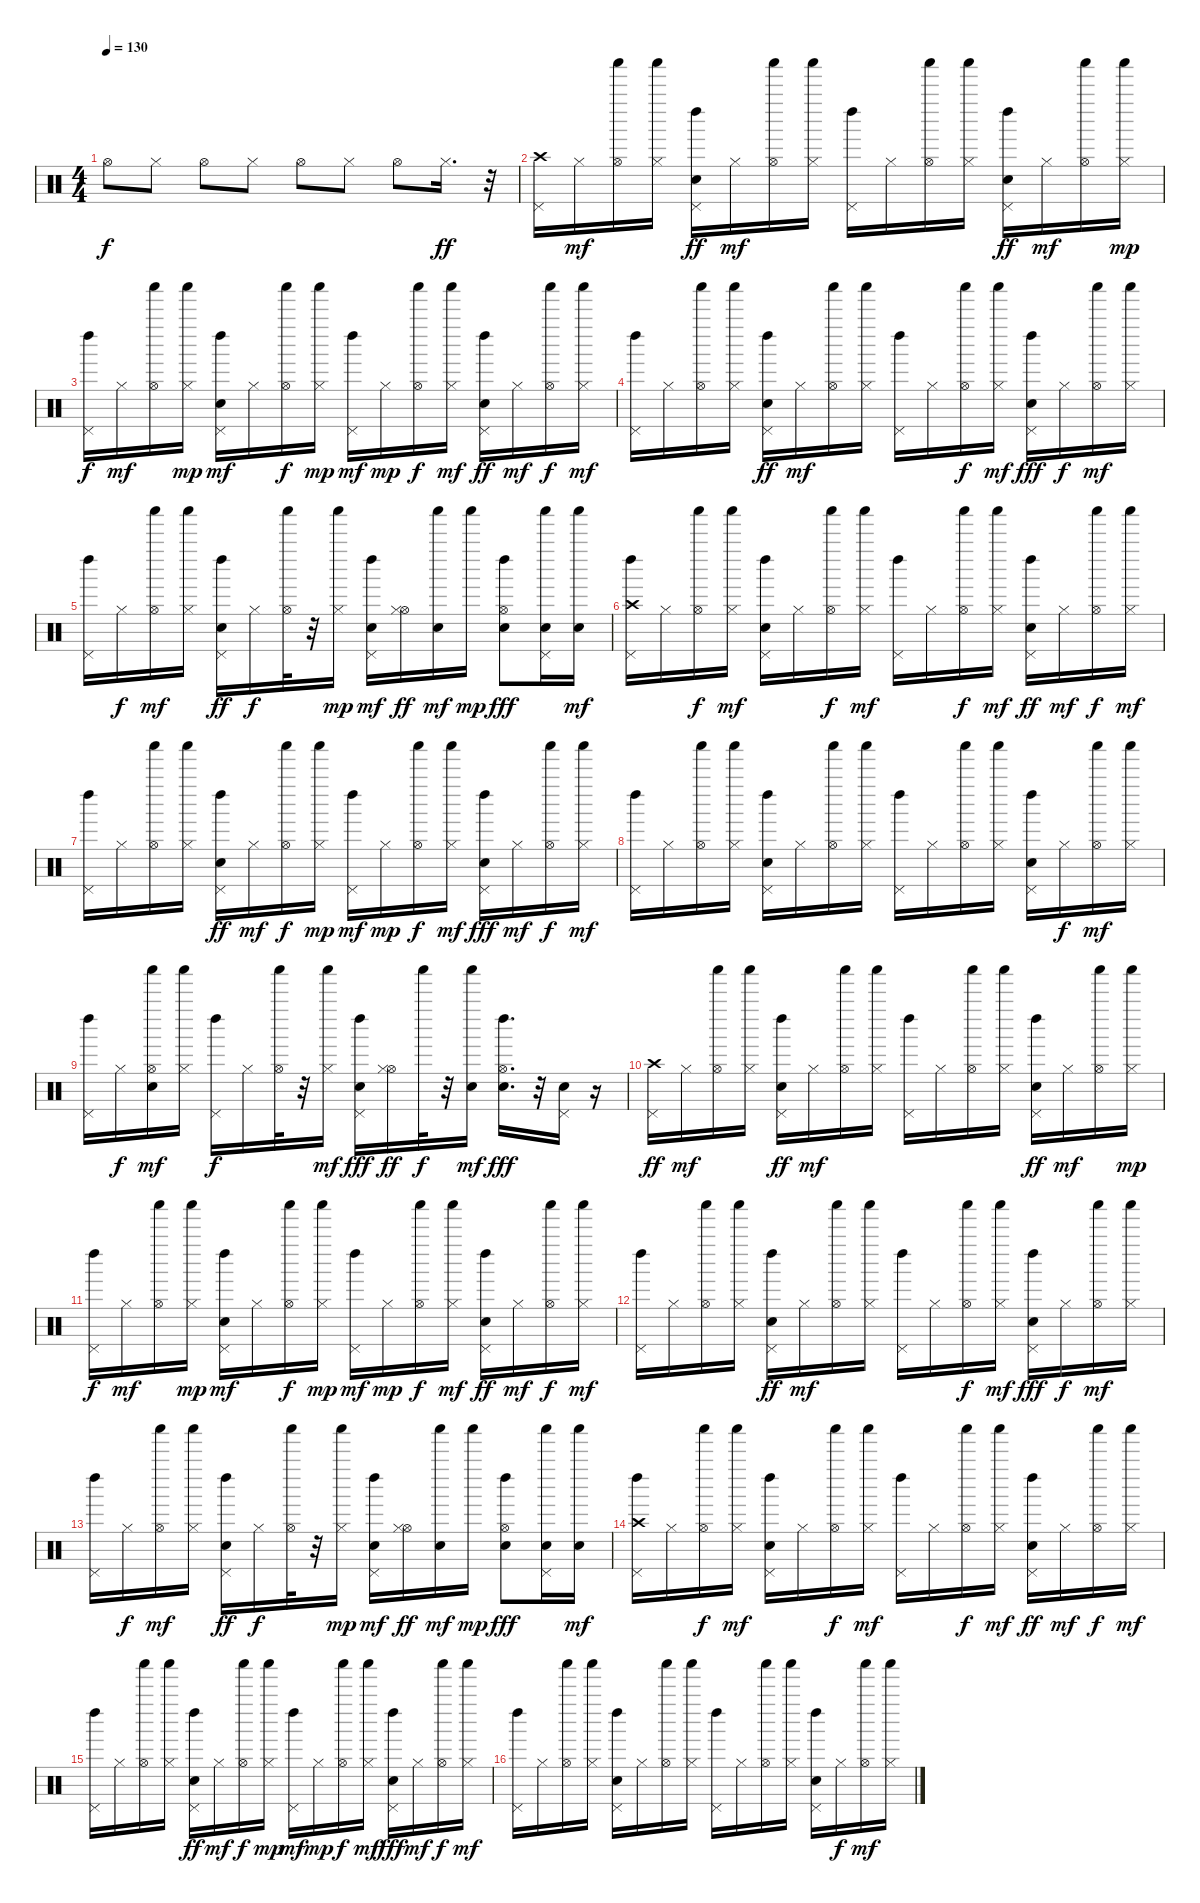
\track "" {instrument percussion}
\staff {score}
\articulation defaults
\ts (4 4)
\tempo 130
\clef neutral
\ks c "Hi-Hat (open)".8{dy f} "Hi-Hat (closed)".8 "Hi-Hat (open)".8 "Hi-Hat (closed)".8 "Hi-Hat (open)".8 "Hi-Hat (closed)".8 "Hi-Hat (open)".8 "Hi-Hat (closed)".16{d dy ff}
r.32 |
("Crash high (hit)" "Pedal Hi-Hat (hit)").16 "Hi-Hat (closed)".16{dy mf} ("Shaker (hit)" "Hi-Hat (open)").16 ("Shaker (hit)" "Hi-Hat (closed)").16 ("Left Maraca (hit)" "Pedal Hi-Hat (hit)" "Snare (hit) 2").16{dy ff} "Hi-Hat (closed)".16{dy mf} ("Shaker (hit)" "Hi-Hat (open)").16 ("Shaker (hit)" "Hi-Hat (closed)").16 ("Left Maraca (hit)" "Pedal Hi-Hat (hit)").16 "Hi-Hat (closed)".16 ("Shaker (hit)" "Hi-Hat (open)").16 ("Hi-Hat (closed)" "Shaker (hit)").16 ("Snare (hit) 2" "Pedal Hi-Hat (hit)" "Left Maraca (hit)").16{dy ff} "Hi-Hat (closed)".16{dy mf} ("Shaker (hit)" "Hi-Hat (open)").16 ("Hi-Hat (closed)" "Shaker (hit)").16{dy mp} |
("Left Maraca (hit)" "Pedal Hi-Hat (hit)").16{dy f} "Hi-Hat (closed)".16{dy mf} ("Shaker (hit)" "Hi-Hat (open)").16 ("Hi-Hat (closed)" "Shaker (hit)").16{dy mp} ("Snare (hit) 2" "Pedal Hi-Hat (hit)" "Left Maraca (hit)").16{dy mf} "Hi-Hat (closed)".16 ("Hi-Hat (open)" "Shaker (hit)").16{dy f} ("Hi-Hat (closed)" "Shaker (hit)").16{dy mp} ("Pedal Hi-Hat (hit)" "Left Maraca (hit)").16{dy mf} "Hi-Hat (closed)".16{dy mp} ("Hi-Hat (open)" "Shaker (hit)").16{dy f} ("Hi-Hat (closed)" "Shaker (hit)").16{dy mf} ("Pedal Hi-Hat (hit)" "Left Maraca (hit)" "Snare (hit) 2").16{dy ff} "Hi-Hat (closed)".16{dy mf} ("Hi-Hat (open)" "Shaker (hit)").16{dy f} ("Hi-Hat (closed)" "Shaker (hit)").16{dy mf} |
("Left Maraca (hit)" "Pedal Hi-Hat (hit)").16 "Hi-Hat (closed)".16 ("Shaker (hit)" "Hi-Hat (open)").16 ("Shaker (hit)" "Hi-Hat (closed)").16 ("Pedal Hi-Hat (hit)" "Left Maraca (hit)" "Snare (hit) 2").16{dy ff} "Hi-Hat (closed)".16{dy mf} ("Hi-Hat (open)" "Shaker (hit)").16 ("Hi-Hat (closed)" "Shaker (hit)").16 ("Pedal Hi-Hat (hit)" "Left Maraca (hit)").16 "Hi-Hat (closed)".16 ("Hi-Hat (open)" "Shaker (hit)").16{dy f} ("Hi-Hat (closed)" "Shaker (hit)").16{dy mf} ("Pedal Hi-Hat (hit)" "Snare (hit) 2" "Left Maraca (hit)").16{dy fff} "Hi-Hat (closed)".16{dy f} ("Hi-Hat (open)" "Shaker (hit)").16{dy mf} ("Shaker (hit)" "Hi-Hat (closed)").16 |
("Left Maraca (hit)" "Pedal Hi-Hat (hit)").16 "Hi-Hat (closed)".16{dy f} ("Shaker (hit)" "Hi-Hat (open)").16{dy mf} ("Shaker (hit)" "Hi-Hat (closed)").16 ("Left Maraca (hit)" "Snare (hit) 2" "Pedal Hi-Hat (hit)").16{dy ff} "Hi-Hat (closed)".16{dy f} ("Shaker (hit)" "Hi-Hat (open)").32 r.32 ("Shaker (hit)" "Hi-Hat (closed)").16{dy mp} ("Electric Snare (hit)" "Left Maraca (hit)" "Pedal Hi-Hat (hit)").16{dy mf} ("Hi-Hat (open)" "Hi-Hat (closed)").16{dy ff} ("Electric Snare (hit)" "Shaker (hit)").16{dy mf} "Shaker (hit)".16{dy mp} ("Electric Snare (hit)" "Left Maraca (hit)" "Hi-Hat (open)").8{dy fff} ("Electric Snare (hit)" "Shaker (hit)" "Pedal Hi-Hat (hit)").16 ("Electric Snare (hit)" "Shaker (hit)").16{dy mf} |
("Pedal Hi-Hat (hit)" "Crash high (hit)" "Left Maraca (hit)").16 "Hi-Hat (closed)".16 ("Shaker (hit)" "Hi-Hat (open)").16{dy f} ("Shaker (hit)" "Hi-Hat (closed)").16{dy mf} ("Left Maraca (hit)" "Snare (hit) 2" "Pedal Hi-Hat (hit)").16 "Hi-Hat (closed)".16 ("Shaker (hit)" "Hi-Hat (open)").16{dy f} ("Shaker (hit)" "Hi-Hat (closed)").16{dy mf} ("Left Maraca (hit)" "Pedal Hi-Hat (hit)").16 "Hi-Hat (closed)".16 ("Shaker (hit)" "Hi-Hat (open)").16{dy f} ("Shaker (hit)" "Hi-Hat (closed)").16{dy mf} ("Left Maraca (hit)" "Snare (hit) 2" "Pedal Hi-Hat (hit)").16{dy ff} "Hi-Hat (closed)".16{dy mf} ("Shaker (hit)" "Hi-Hat (open)").16{dy f} ("Hi-Hat (closed)" "Shaker (hit)").16{dy mf} |
("Left Maraca (hit)" "Pedal Hi-Hat (hit)").16 "Hi-Hat (closed)".16 ("Shaker (hit)" "Hi-Hat (open)").16 ("Hi-Hat (closed)" "Shaker (hit)").16 ("Pedal Hi-Hat (hit)" "Left Maraca (hit)" "Snare (hit) 2").16{dy ff} "Hi-Hat (closed)".16{dy mf} ("Hi-Hat (open)" "Shaker (hit)").16{dy f} ("Hi-Hat (closed)" "Shaker (hit)").16{dy mp} ("Pedal Hi-Hat (hit)" "Left Maraca (hit)").16{dy mf} "Hi-Hat (closed)".16{dy mp} ("Hi-Hat (open)" "Shaker (hit)").16{dy f} ("Hi-Hat (closed)" "Shaker (hit)").16{dy mf} ("Pedal Hi-Hat (hit)" "Snare (hit) 2" "Left Maraca (hit)").16{dy fff} "Hi-Hat (closed)".16{dy mf} ("Hi-Hat (open)" "Shaker (hit)").16{dy f} ("Hi-Hat (closed)" "Shaker (hit)").16{dy mf} |
("Pedal Hi-Hat (hit)" "Left Maraca (hit)").16 "Hi-Hat (closed)".16 ("Hi-Hat (open)" "Shaker (hit)").16 ("Hi-Hat (closed)" "Shaker (hit)").16 ("Pedal Hi-Hat (hit)" "Snare (hit) 2" "Left Maraca (hit)").16 "Hi-Hat (closed)".16 ("Hi-Hat (open)" "Shaker (hit)").16 ("Hi-Hat (closed)" "Shaker (hit)").16 ("Left Maraca (hit)" "Pedal Hi-Hat (hit)").16 "Hi-Hat (closed)".16 ("Hi-Hat (open)" "Shaker (hit)").16 ("Hi-Hat (closed)" "Shaker (hit)").16 ("Pedal Hi-Hat (hit)" "Snare (hit) 2" "Left Maraca (hit)").16 "Hi-Hat (closed)".16{dy f} ("Hi-Hat (open)" "Shaker (hit)").16{dy mf} ("Hi-Hat (closed)" "Shaker (hit)").16 |
("Left Maraca (hit)" "Pedal Hi-Hat (hit)").16 "Hi-Hat (closed)".16{dy f} ("Snare (hit) 2" "Hi-Hat (open)" "Shaker (hit)").16{dy mf} ("Shaker (hit)" "Hi-Hat (closed)").16 ("Left Maraca (hit)" "Pedal Hi-Hat (hit)").16{dy f} "Hi-Hat (closed)".16 ("Shaker (hit)" "Hi-Hat (open)").32 r.32 ("Shaker (hit)" "Hi-Hat (closed)").16{dy mf} ("Snare (hit) 2" "Left Maraca (hit)" "Pedal Hi-Hat (hit)").16{dy fff} ("Hi-Hat (open)" "Hi-Hat (closed)").16{dy ff} "Shaker (hit)".32{dy f} r.32 ("Electric Snare (hit)" "Shaker (hit)").16{dy mf} ("Left Maraca (hit)" "Electric Snare (hit)" "Hi-Hat (open)").16{d dy fff} r.32 ("Electric Snare (hit)" "Pedal Hi-Hat (hit)").16 r.16 |
("Crash high (hit)" "Pedal Hi-Hat (hit)").16{dy ff} "Hi-Hat (closed)".16{dy mf} ("Shaker (hit)" "Hi-Hat (open)").16 ("Shaker (hit)" "Hi-Hat (closed)").16 ("Left Maraca (hit)" "Pedal Hi-Hat (hit)" "Snare (hit) 2").16{dy ff} "Hi-Hat (closed)".16{dy mf} ("Shaker (hit)" "Hi-Hat (open)").16 ("Shaker (hit)" "Hi-Hat (closed)").16 ("Left Maraca (hit)" "Pedal Hi-Hat (hit)").16 "Hi-Hat (closed)".16 ("Shaker (hit)" "Hi-Hat (open)").16 ("Hi-Hat (closed)" "Shaker (hit)").16 ("Snare (hit) 2" "Pedal Hi-Hat (hit)" "Left Maraca (hit)").16{dy ff} "Hi-Hat (closed)".16{dy mf} ("Shaker (hit)" "Hi-Hat (open)").16 ("Hi-Hat (closed)" "Shaker (hit)").16{dy mp} |
("Left Maraca (hit)" "Pedal Hi-Hat (hit)").16{dy f} "Hi-Hat (closed)".16{dy mf} ("Shaker (hit)" "Hi-Hat (open)").16 ("Hi-Hat (closed)" "Shaker (hit)").16{dy mp} ("Snare (hit) 2" "Pedal Hi-Hat (hit)" "Left Maraca (hit)").16{dy mf} "Hi-Hat (closed)".16 ("Hi-Hat (open)" "Shaker (hit)").16{dy f} ("Hi-Hat (closed)" "Shaker (hit)").16{dy mp} ("Pedal Hi-Hat (hit)" "Left Maraca (hit)").16{dy mf} "Hi-Hat (closed)".16{dy mp} ("Hi-Hat (open)" "Shaker (hit)").16{dy f} ("Hi-Hat (closed)" "Shaker (hit)").16{dy mf} ("Pedal Hi-Hat (hit)" "Left Maraca (hit)" "Snare (hit) 2").16{dy ff} "Hi-Hat (closed)".16{dy mf} ("Hi-Hat (open)" "Shaker (hit)").16{dy f} ("Hi-Hat (closed)" "Shaker (hit)").16{dy mf} |
("Left Maraca (hit)" "Pedal Hi-Hat (hit)").16 "Hi-Hat (closed)".16 ("Shaker (hit)" "Hi-Hat (open)").16 ("Shaker (hit)" "Hi-Hat (closed)").16 ("Pedal Hi-Hat (hit)" "Left Maraca (hit)" "Snare (hit) 2").16{dy ff} "Hi-Hat (closed)".16{dy mf} ("Hi-Hat (open)" "Shaker (hit)").16 ("Hi-Hat (closed)" "Shaker (hit)").16 ("Pedal Hi-Hat (hit)" "Left Maraca (hit)").16 "Hi-Hat (closed)".16 ("Hi-Hat (open)" "Shaker (hit)").16{dy f} ("Hi-Hat (closed)" "Shaker (hit)").16{dy mf} ("Pedal Hi-Hat (hit)" "Snare (hit) 2" "Left Maraca (hit)").16{dy fff} "Hi-Hat (closed)".16{dy f} ("Hi-Hat (open)" "Shaker (hit)").16{dy mf} ("Shaker (hit)" "Hi-Hat (closed)").16 |
("Left Maraca (hit)" "Pedal Hi-Hat (hit)").16 "Hi-Hat (closed)".16{dy f} ("Shaker (hit)" "Hi-Hat (open)").16{dy mf} ("Shaker (hit)" "Hi-Hat (closed)").16 ("Left Maraca (hit)" "Snare (hit) 2" "Pedal Hi-Hat (hit)").16{dy ff} "Hi-Hat (closed)".16{dy f} ("Shaker (hit)" "Hi-Hat (open)").32 r.32 ("Shaker (hit)" "Hi-Hat (closed)").16{dy mp} ("Electric Snare (hit)" "Left Maraca (hit)" "Pedal Hi-Hat (hit)").16{dy mf} ("Hi-Hat (open)" "Hi-Hat (closed)").16{dy ff} ("Electric Snare (hit)" "Shaker (hit)").16{dy mf} "Shaker (hit)".16{dy mp} ("Electric Snare (hit)" "Left Maraca (hit)" "Hi-Hat (open)").8{dy fff} ("Electric Snare (hit)" "Shaker (hit)" "Pedal Hi-Hat (hit)").16 ("Electric Snare (hit)" "Shaker (hit)").16{dy mf} |
("Pedal Hi-Hat (hit)" "Crash high (hit)" "Left Maraca (hit)").16 "Hi-Hat (closed)".16 ("Shaker (hit)" "Hi-Hat (open)").16{dy f} ("Shaker (hit)" "Hi-Hat (closed)").16{dy mf} ("Left Maraca (hit)" "Snare (hit) 2" "Pedal Hi-Hat (hit)").16 "Hi-Hat (closed)".16 ("Shaker (hit)" "Hi-Hat (open)").16{dy f} ("Shaker (hit)" "Hi-Hat (closed)").16{dy mf} ("Left Maraca (hit)" "Pedal Hi-Hat (hit)").16 "Hi-Hat (closed)".16 ("Shaker (hit)" "Hi-Hat (open)").16{dy f} ("Shaker (hit)" "Hi-Hat (closed)").16{dy mf} ("Left Maraca (hit)" "Snare (hit) 2" "Pedal Hi-Hat (hit)").16{dy ff} "Hi-Hat (closed)".16{dy mf} ("Shaker (hit)" "Hi-Hat (open)").16{dy f} ("Hi-Hat (closed)" "Shaker (hit)").16{dy mf} |
("Left Maraca (hit)" "Pedal Hi-Hat (hit)").16 "Hi-Hat (closed)".16 ("Shaker (hit)" "Hi-Hat (open)").16 ("Hi-Hat (closed)" "Shaker (hit)").16 ("Pedal Hi-Hat (hit)" "Left Maraca (hit)" "Snare (hit) 2").16{dy ff} "Hi-Hat (closed)".16{dy mf} ("Hi-Hat (open)" "Shaker (hit)").16{dy f} ("Hi-Hat (closed)" "Shaker (hit)").16{dy mp} ("Pedal Hi-Hat (hit)" "Left Maraca (hit)").16{dy mf} "Hi-Hat (closed)".16{dy mp} ("Hi-Hat (open)" "Shaker (hit)").16{dy f} ("Hi-Hat (closed)" "Shaker (hit)").16{dy mf} ("Pedal Hi-Hat (hit)" "Snare (hit) 2" "Left Maraca (hit)").16{dy fff} "Hi-Hat (closed)".16{dy mf} ("Hi-Hat (open)" "Shaker (hit)").16{dy f} ("Hi-Hat (closed)" "Shaker (hit)").16{dy mf} |
("Pedal Hi-Hat (hit)" "Left Maraca (hit)").16 "Hi-Hat (closed)".16 ("Hi-Hat (open)" "Shaker (hit)").16 ("Hi-Hat (closed)" "Shaker (hit)").16 ("Pedal Hi-Hat (hit)" "Snare (hit) 2" "Left Maraca (hit)").16 "Hi-Hat (closed)".16 ("Hi-Hat (open)" "Shaker (hit)").16 ("Hi-Hat (closed)" "Shaker (hit)").16 ("Left Maraca (hit)" "Pedal Hi-Hat (hit)").16 "Hi-Hat (closed)".16 ("Hi-Hat (open)" "Shaker (hit)").16 ("Hi-Hat (closed)" "Shaker (hit)").16 ("Pedal Hi-Hat (hit)" "Snare (hit) 2" "Left Maraca (hit)").16 "Hi-Hat (closed)".16{dy f} ("Hi-Hat (open)" "Shaker (hit)").16{dy mf} ("Hi-Hat (closed)" "Shaker (hit)").16
